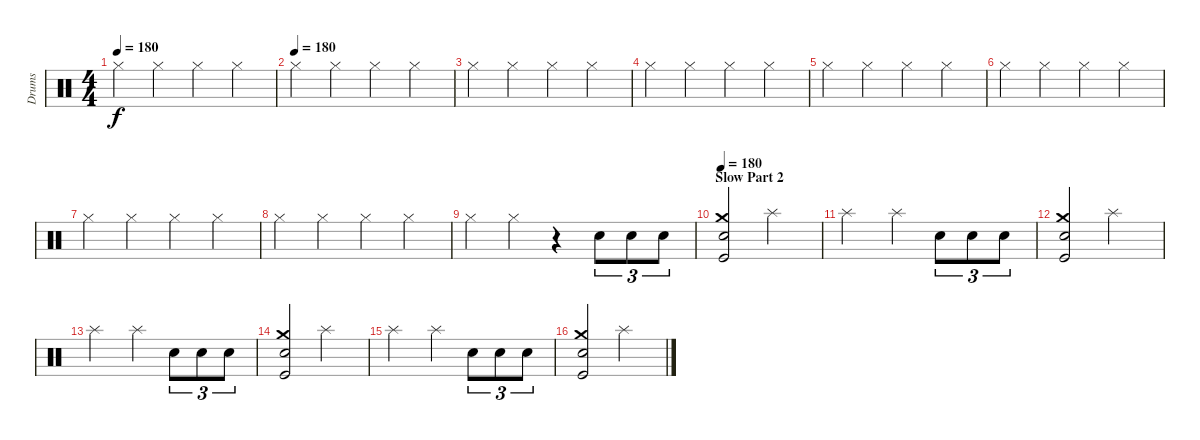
\track ("Drums" "Drums") {instrument percussion}
\staff {score}
\articulation defaults
\ts (4 4)
\tempo 180
\clef neutral
\ks c "Hi-Hat (closed)".4{dy f} "Hi-Hat (closed)".4 "Hi-Hat (closed)".4 "Hi-Hat (closed)".4
|
\tempo (180)
"Hi-Hat (closed)".4 "Hi-Hat (closed)".4 "Hi-Hat (closed)".4 "Hi-Hat (closed)".4 |
"Hi-Hat (closed)".4 "Hi-Hat (closed)".4 "Hi-Hat (closed)".4 "Hi-Hat (closed)".4 |
"Hi-Hat (closed)".4 "Hi-Hat (closed)".4 "Hi-Hat (closed)".4 "Hi-Hat (closed)".4 |
"Hi-Hat (closed)".4 "Hi-Hat (closed)".4 "Hi-Hat (closed)".4 "Hi-Hat (closed)".4 |
"Hi-Hat (closed)".4 "Hi-Hat (closed)".4 "Hi-Hat (closed)".4 "Hi-Hat (closed)".4 |
"Hi-Hat (closed)".4 "Hi-Hat (closed)".4 "Hi-Hat (closed)".4 "Hi-Hat (closed)".4 |
"Hi-Hat (closed)".4 "Hi-Hat (closed)".4 "Hi-Hat (closed)".4 "Hi-Hat (closed)".4 |
"Hi-Hat (closed)".4 "Hi-Hat (closed)".4 r.4 "Electric Snare (hit)".8{tu (3 2)} "Electric Snare (hit)".8{tu (3 2)} "Electric Snare (hit)".8{tu (3 2)} |
\section ("" "Slow Part 2")
\tempo 180
("Crash medium (hit)" "Electric Snare (hit)" "Kick (hit)").2 "Splash (hit)".2 |
"Splash (hit)".2 "Splash (hit)".4 "Electric Snare (hit)".8{tu (3 2)} "Electric Snare (hit)".8{tu (3 2)} "Electric Snare (hit)".8{tu (3 2)} |
("Crash medium (hit)" "Electric Snare (hit)" "Kick (hit)").2 "Splash (hit)".2 |
"Splash (hit)".2 "Splash (hit)".4 "Electric Snare (hit)".8{tu (3 2)} "Electric Snare (hit)".8{tu (3 2)} "Electric Snare (hit)".8{tu (3 2)} |
("Crash medium (hit)" "Electric Snare (hit)" "Kick (hit)").2 "Splash (hit)".2 |
"Splash (hit)".2 "Splash (hit)".4 "Electric Snare (hit)".8{tu (3 2)} "Electric Snare (hit)".8{tu (3 2)} "Electric Snare (hit)".8{tu (3 2)} |
("Crash medium (hit)" "Electric Snare (hit)" "Kick (hit)").2 "Splash (hit)".2
